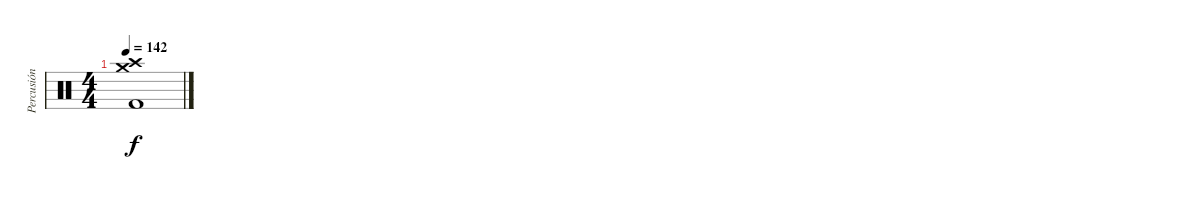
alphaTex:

\track ("Percusión" "Percusión") {instrument percussion}
\staff {score}
\articulation defaults
\ts (4 4)
\tempo 142
\clef neutral
\ks c
("Crash high (hit)" "Crash medium (hit)" "Kick (hit) 2").1{dy f}
